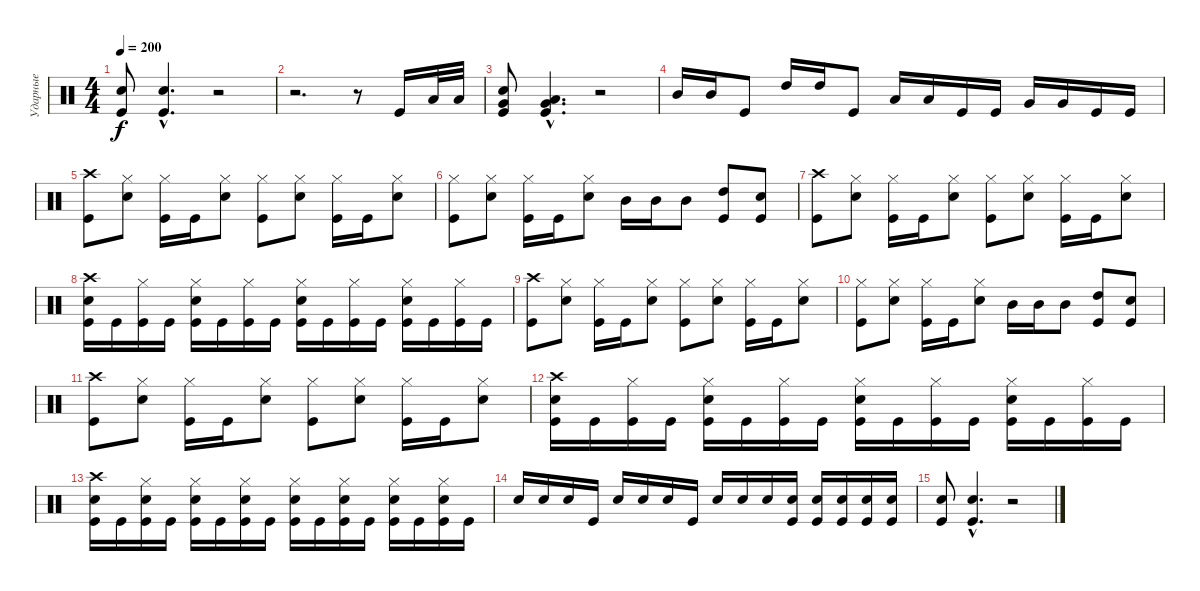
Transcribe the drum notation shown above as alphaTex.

\track ("Ударные" "Ударные") {instrument percussion}
\staff {score}
\articulation defaults
\ts (4 4)
\tempo 200
\clef neutral
\ks c
("Electric Snare (hit)" "Kick (hit)").8{dy f} ("Electric Snare (hit)"{hac} "Kick (hit)"{hac}).4{d} r.2 |
r.2{d} r.8 "Kick (hit)".16 "Low Tom (hit)".32 "Low Tom (hit)".32 |
("Very Low Tom (hit)" "Electric Snare (hit)" "Kick (hit)").8 ("Very Low Tom (hit)"{hac} "Low Tom (hit)"{hac} "Kick (hit)"{hac}).4{d} r.2 |
"Mid Tom (hit)".16 "Mid Tom (hit)".16 "Kick (hit)".8 "High Tom (hit)".16 "High Tom (hit)".16 "Kick (hit)".8 "Low Tom (hit)".16 "Low Tom (hit)".16 "Kick (hit)".16 "Kick (hit)".16 "Very Low Tom (hit)".16 "Very Low Tom (hit)".16 "Kick (hit)".16 "Kick (hit)".16 |
("Crash high (hit)" "Kick (hit)").8 ("Hi-Hat (closed)" "Electric Snare (hit)").8 ("Hi-Hat (closed)" "Kick (hit)").16 "Kick (hit)".16 ("Hi-Hat (closed)" "Electric Snare (hit)").8 ("Hi-Hat (closed)" "Kick (hit)").8 ("Hi-Hat (closed)" "Electric Snare (hit)").8 ("Hi-Hat (closed)" "Kick (hit)").16 "Kick (hit)".16 ("Hi-Hat (closed)" "Electric Snare (hit)").8 |
("Hi-Hat (closed)" "Kick (hit)").8 ("Hi-Hat (closed)" "Electric Snare (hit)").8 ("Hi-Hat (closed)" "Kick (hit)").16 "Kick (hit)".16 ("Hi-Hat (closed)" "Electric Snare (hit)").8 "Mid Tom (hit)".16 "Mid Tom (hit)".16 "Mid Tom (hit)".8 ("High Tom (hit)" "Kick (hit)").8 ("Electric Snare (hit)" "Kick (hit)").8 |
("Crash high (hit)" "Kick (hit)").8 ("Hi-Hat (closed)" "Electric Snare (hit)").8 ("Hi-Hat (closed)" "Kick (hit)").16 "Kick (hit)".16 ("Hi-Hat (closed)" "Electric Snare (hit)").8 ("Hi-Hat (closed)" "Kick (hit)").8 ("Hi-Hat (closed)" "Electric Snare (hit)").8 ("Hi-Hat (closed)" "Kick (hit)").16 "Kick (hit)".16 ("Hi-Hat (closed)" "Electric Snare (hit)").8 |
("Crash high (hit)" "Electric Snare (hit)" "Kick (hit)").16 "Kick (hit)".16 ("Hi-Hat (closed)" "Kick (hit)").16 "Kick (hit)".16 ("Hi-Hat (closed)" "Electric Snare (hit)" "Kick (hit)").16 "Kick (hit)".16 ("Hi-Hat (closed)" "Kick (hit)").16 "Kick (hit)".16 ("Hi-Hat (closed)" "Electric Snare (hit)" "Kick (hit)").16 "Kick (hit)".16 ("Hi-Hat (closed)" "Kick (hit)").16 "Kick (hit)".16 ("Hi-Hat (closed)" "Electric Snare (hit)" "Kick (hit)").16 "Kick (hit)".16 ("Hi-Hat (closed)" "Kick (hit)").16 "Kick (hit)".16 |
("Crash high (hit)" "Kick (hit)").8 ("Hi-Hat (closed)" "Electric Snare (hit)").8 ("Hi-Hat (closed)" "Kick (hit)").16 "Kick (hit)".16 ("Hi-Hat (closed)" "Electric Snare (hit)").8 ("Hi-Hat (closed)" "Kick (hit)").8 ("Hi-Hat (closed)" "Electric Snare (hit)").8 ("Hi-Hat (closed)" "Kick (hit)").16 "Kick (hit)".16 ("Hi-Hat (closed)" "Electric Snare (hit)").8 |
("Hi-Hat (closed)" "Kick (hit)").8 ("Hi-Hat (closed)" "Electric Snare (hit)").8 ("Hi-Hat (closed)" "Kick (hit)").16 "Kick (hit)".16 ("Hi-Hat (closed)" "Electric Snare (hit)").8 "Mid Tom (hit)".16 "Mid Tom (hit)".16 "Mid Tom (hit)".8 ("High Tom (hit)" "Kick (hit)").8 ("Electric Snare (hit)" "Kick (hit)").8 |
("Crash high (hit)" "Kick (hit)").8 ("Hi-Hat (closed)" "Electric Snare (hit)").8 ("Hi-Hat (closed)" "Kick (hit)").16 "Kick (hit)".16 ("Hi-Hat (closed)" "Electric Snare (hit)").8 ("Hi-Hat (closed)" "Kick (hit)").8 ("Hi-Hat (closed)" "Electric Snare (hit)").8 ("Hi-Hat (closed)" "Kick (hit)").16 "Kick (hit)".16 ("Hi-Hat (closed)" "Electric Snare (hit)").8 |
("Crash high (hit)" "Electric Snare (hit)" "Kick (hit)").16 "Kick (hit)".16 ("Hi-Hat (closed)" "Kick (hit)").16 "Kick (hit)".16 ("Hi-Hat (closed)" "Electric Snare (hit)" "Kick (hit)").16 "Kick (hit)".16 ("Hi-Hat (closed)" "Kick (hit)").16 "Kick (hit)".16 ("Hi-Hat (closed)" "Electric Snare (hit)" "Kick (hit)").16 "Kick (hit)".16 ("Hi-Hat (closed)" "Kick (hit)").16 "Kick (hit)".16 ("Hi-Hat (closed)" "Electric Snare (hit)" "Kick (hit)").16 "Kick (hit)".16 ("Hi-Hat (closed)" "Kick (hit)").16 "Kick (hit)".16 |
("Crash high (hit)" "Electric Snare (hit)" "Kick (hit)").16 "Kick (hit)".16 ("Hi-Hat (closed)" "Electric Snare (hit)" "Kick (hit)").16 "Kick (hit)".16 ("Hi-Hat (closed)" "Electric Snare (hit)" "Kick (hit)").16 "Kick (hit)".16 ("Hi-Hat (closed)" "Electric Snare (hit)" "Kick (hit)").16 "Kick (hit)".16 ("Hi-Hat (closed)" "Electric Snare (hit)" "Kick (hit)").16 "Kick (hit)".16 ("Hi-Hat (closed)" "Electric Snare (hit)" "Kick (hit)").16 "Kick (hit)".16 ("Hi-Hat (closed)" "Electric Snare (hit)" "Kick (hit)").16 "Kick (hit)".16 ("Hi-Hat (closed)" "Electric Snare (hit)" "Kick (hit)").16 "Kick (hit)".16 |
"Electric Snare (hit)".16 "Electric Snare (hit)".16 "Electric Snare (hit)".16 "Kick (hit)".16 "Electric Snare (hit)".16 "Electric Snare (hit)".16 "Electric Snare (hit)".16 "Kick (hit)".16 "Electric Snare (hit)".16 "Electric Snare (hit)".16 "Electric Snare (hit)".16 ("Electric Snare (hit)" "Kick (hit)").16 ("Electric Snare (hit)" "Kick (hit)").16 ("Electric Snare (hit)" "Kick (hit)").16 ("Electric Snare (hit)" "Kick (hit)").16 ("Electric Snare (hit)" "Kick (hit)").16 |
("Electric Snare (hit)" "Kick (hit)").8 ("Electric Snare (hit)"{hac} "Kick (hit)"{hac}).4{d} r.2
